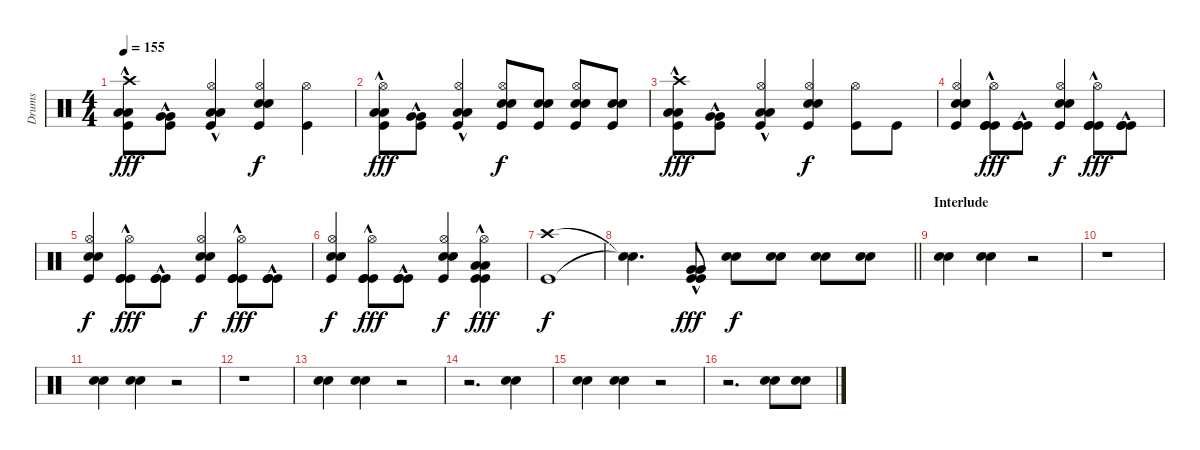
\track ("Drums" "Drums") {instrument percussion}
\staff {score}
\articulation defaults
\ts (4 4)
\tempo 155
\clef neutral
\ks c
("Crash high (hit)" "Low Tom (hit)"{hac} "Low Tom (hit)"{hac} "Kick (hit)").8{dy fff} ("Very Low Tom (hit)"{hac} "Very Low Tom (hit)"{hac} "Kick (hit)").8 ("Hi-Hat (open)" "Low Floor Tom (hit)"{hac} "Low Floor Tom (hit)"{hac} "Kick (hit)").4 ("Hi-Hat (open)" "Snare (hit) 2" "Electric Snare (hit)" "Kick (hit)").4{dy f} ("Hi-Hat (open)" "Kick (hit)").4 |
("Hi-Hat (open)" "Low Tom (hit)"{hac} "Low Tom (hit)"{hac} "Kick (hit)").8{dy fff} ("Very Low Tom (hit)"{hac} "Very Low Tom (hit)"{hac} "Kick (hit)").8 ("Hi-Hat (open)" "Low Floor Tom (hit)"{hac} "Low Floor Tom (hit)"{hac} "Kick (hit)").4 ("Hi-Hat (open)" "Snare (hit) 2" "Electric Snare (hit)" "Kick (hit)").8{dy f} ("Snare (hit) 2" "Electric Snare (hit)" "Kick (hit)").8 ("Hi-Hat (open)" "Snare (hit) 2" "Electric Snare (hit)" "Kick (hit)").8 ("Snare (hit) 2" "Electric Snare (hit)" "Kick (hit)").8 |
("Crash high (hit)" "Low Tom (hit)"{hac} "Low Tom (hit)"{hac} "Kick (hit)").8{dy fff} ("Very Low Tom (hit)"{hac} "Very Low Tom (hit)"{hac} "Kick (hit)").8 ("Hi-Hat (open)" "Low Floor Tom (hit)"{hac} "Low Floor Tom (hit)"{hac} "Kick (hit)").4 ("Hi-Hat (open)" "Snare (hit) 2" "Electric Snare (hit)" "Kick (hit)").4{dy f} ("Hi-Hat (open)" "Kick (hit)").8 "Kick (hit)".8 |
("Hi-Hat (open)" "Snare (hit) 2" "Electric Snare (hit)" "Kick (hit)").4 ("Hi-Hat (open)" "Kick (hit)"{hac} "Kick (hit)"{hac} "Kick (hit)"{hac}).8{dy fff} ("Kick (hit)"{hac} "Kick (hit)"{hac} "Kick (hit)"{hac}).8 ("Hi-Hat (open)" "Snare (hit) 2" "Electric Snare (hit)" "Kick (hit)").4{dy f} ("Hi-Hat (open)" "Kick (hit)"{hac} "Kick (hit)"{hac} "Kick (hit)"{hac}).8{dy fff} ("Kick (hit)"{hac} "Kick (hit)"{hac} "Kick (hit)"{hac}).8 |
("Hi-Hat (open)" "Snare (hit) 2" "Electric Snare (hit)" "Kick (hit)").4{dy f} ("Hi-Hat (open)" "Kick (hit)"{hac} "Kick (hit)"{hac} "Kick (hit)"{hac}).8{dy fff} ("Kick (hit)"{hac} "Kick (hit)"{hac} "Kick (hit)"{hac}).8 ("Hi-Hat (open)" "Snare (hit) 2" "Electric Snare (hit)" "Kick (hit)").4{dy f} ("Hi-Hat (open)" "Kick (hit)"{hac} "Kick (hit)"{hac} "Kick (hit)"{hac}).8{dy fff} ("Kick (hit)"{hac} "Kick (hit)"{hac} "Kick (hit)"{hac}).8 |
("Hi-Hat (open)" "Snare (hit) 2" "Electric Snare (hit)" "Kick (hit)").4{dy f} ("Hi-Hat (open)" "Kick (hit)"{hac} "Kick (hit)"{hac} "Kick (hit)"{hac}).8{dy fff} ("Kick (hit)"{hac} "Kick (hit)"{hac} "Kick (hit)"{hac}).8 ("Hi-Hat (open)" "Snare (hit) 2" "Electric Snare (hit)" "Kick (hit)").4{dy f} ("Hi-Hat (open)" "Low Tom (hit)"{hac} "Low Tom (hit)"{hac} "Kick (hit)"{hac} "Kick (hit)"{hac}).4{bu 120 dy fff} |
("Crash high (hit)" "Kick (hit)").1{dy f} |
\barLineRight lightlight
("Snare (hit)"{t} "Snare (hit)"{t}).4{d} ("Very Low Tom (hit)"{hac} "Very Low Tom (hit)"{hac} "Kick (hit)"{hac} "Kick (hit)"{hac}).8{dy fff} ("Snare (hit) 2" "Electric Snare (hit)").8{dy f} ("Snare (hit) 2" "Electric Snare (hit)").8 ("Snare (hit) 2" "Electric Snare (hit)").8 ("Snare (hit) 2" "Electric Snare (hit)").8 |
\section ("" "Interlude")
("Snare (hit) 2" "Electric Snare (hit)").4 ("Snare (hit) 2" "Electric Snare (hit)").4 r.2 |
r.1 |
("Snare (hit) 2" "Electric Snare (hit)").4 ("Snare (hit) 2" "Electric Snare (hit)").4 r.2 |
r.1 |
("Snare (hit) 2" "Electric Snare (hit)").4 ("Snare (hit) 2" "Electric Snare (hit)").4 r.2 |
r.2{d} ("Snare (hit) 2" "Electric Snare (hit)").4 |
("Snare (hit) 2" "Electric Snare (hit)").4 ("Snare (hit) 2" "Electric Snare (hit)").4 r.2 |
r.2{d} ("Snare (hit) 2" "Electric Snare (hit)").8 ("Snare (hit) 2" "Electric Snare (hit)").8
